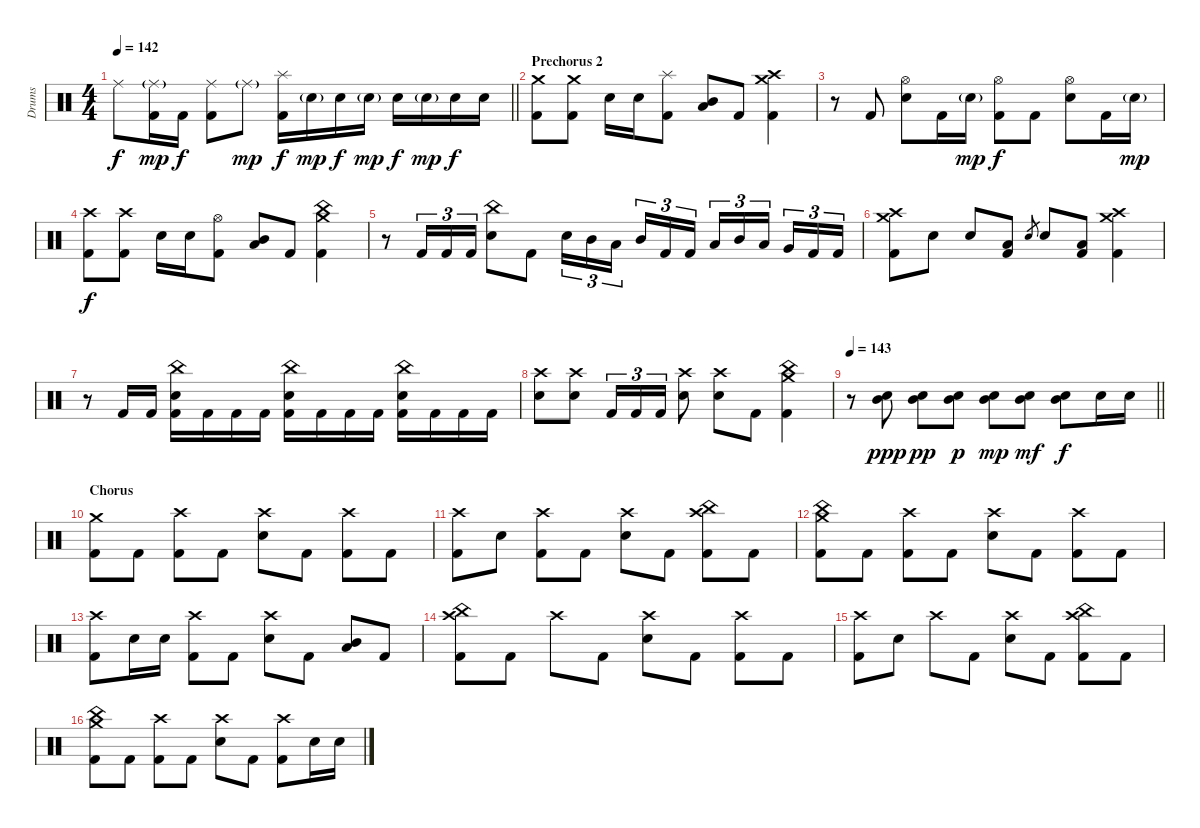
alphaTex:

\track ("Drums" "Drums") {instrument percussion}
\staff {score}
\articulation defaults
\ts (4 4)
\tempo 142
\clef neutral
\barLineRight lightlight
\ks c "Ride (middle)".8{dy f}
("Ride (middle)"{g} "Kick (hit) 2").16{dy mp} "Kick (hit) 2".16{dy f} ("Ride (middle)" "Kick (hit) 2").8 "Ride (middle)"{g}.8{dy mp} ("Splash (hit)" "Kick (hit) 2").16{dy f} "Electric Snare (hit)"{g}.16{dy mp} "Electric Snare (hit)".16{dy f} "Electric Snare (hit)"{g}.16{dy mp} "Electric Snare (hit)".16{dy f} "Electric Snare (hit)"{g}.16{dy mp} "Electric Snare (hit)".16{dy f} "Electric Snare (hit)".16 |
\section ("" "Prechorus 2")
("Crash medium (hit)" "Kick (hit) 2").8 ("Crash medium (hit)" "Kick (hit) 2").8 "Electric Snare (hit)".16 "Electric Snare (hit)".16 ("Splash (hit)" "Kick (hit) 2").8 ("Mid Tom (hit)" "Low Floor Tom (hit)").8{bu 60} "Kick (hit) 2".8{bu 60} ("Crash high (hit)" "Crash medium (hit)" "Kick (hit) 2").4 |
r.8 "Kick (hit) 2".8 ("Hi-Hat (open)" "Electric Snare (hit)").8 "Kick (hit) 2".16 "Electric Snare (hit)"{g}.16{dy mp} ("Hi-Hat (open)" "Kick (hit) 2").8{dy f} "Kick (hit) 2".8 ("Hi-Hat (open)" "Electric Snare (hit)").8 "Kick (hit) 2".16 "Electric Snare (hit)"{g}.16{dy mp} |
("Crash high (hit)" "Kick (hit) 2").8{dy f} ("Crash high (hit)" "Kick (hit) 2").8 "Electric Snare (hit)".16 "Electric Snare (hit)".16 ("Hi-Hat (open)" "Kick (hit) 2").8 ("Mid Tom (hit)" "Low Floor Tom (hit)").8{bu 60} "Kick (hit) 2".8{bu 60} ("Crash medium (hit)" "China (hit)" "Kick (hit) 2").4 |
r.8 "Kick (hit) 2".16{tu (3 2)} "Kick (hit) 2".16{tu (3 2)} "Kick (hit) 2".16{tu (3 2)} ("China (hit)" "Electric Snare (hit)").8 "Kick (hit) 2".8 "Electric Snare (hit)".16{tu (3 2)} "Mid Tom (hit)".16{tu (3 2)} "Low Floor Tom (hit)".16{tu (3 2)} "Mid Tom (hit)".16{tu (3 2)} "Kick (hit) 2".16{tu (3 2)} "Kick (hit) 2".16{tu (3 2)} "Low Floor Tom (hit)".16{tu (3 2)} "Mid Tom (hit)".16{tu (3 2)} "Low Floor Tom (hit)".16{tu (3 2)} "Very Low Tom (hit)".16{tu (3 2)} "Kick (hit) 2".16{tu (3 2)} "Kick (hit) 2".16{tu (3 2)} |
("Crash high (hit)" "Crash medium (hit)" "Kick (hit) 2").8 "Electric Snare (hit)".8 "Electric Snare (hit)".8 ("Low Floor Tom (hit)" "Kick (hit) 2").8 "Electric Snare (hit)".8{gr} "Electric Snare (hit)".8 ("Low Floor Tom (hit)" "Kick (hit) 2").8 ("Crash high (hit)" "Crash medium (hit)" "Kick (hit) 2").4 |
r.8 "Kick (hit) 2".16 "Kick (hit) 2".16 ("China (hit)" "Electric Snare (hit)" "Kick (hit) 2").16 "Kick (hit) 2".16 "Kick (hit) 2".16 "Kick (hit) 2".16 ("China (hit)" "Electric Snare (hit)" "Kick (hit) 2").16 "Kick (hit) 2".16 "Kick (hit) 2".16 "Kick (hit) 2".16 ("China (hit)" "Electric Snare (hit)" "Kick (hit) 2").16 "Kick (hit) 2".16 "Kick (hit) 2".16 "Kick (hit) 2".16 |
("Crash high (hit)" "Electric Snare (hit)").8 ("Crash high (hit)" "Electric Snare (hit)").8 "Kick (hit) 2".16{tu (3 2)} "Kick (hit) 2".16{tu (3 2)} "Kick (hit) 2".16{tu (3 2)} ("Crash high (hit)" "Electric Snare (hit)").8 ("Crash high (hit)" "Electric Snare (hit)").8 "Kick (hit) 2".8 ("Crash medium (hit)" "China (hit)" "Kick (hit) 2").4 |
\tempo 143
\barLineRight lightlight
r.8 ("Mid Tom (hit)" "Electric Snare (hit)").8{dy ppp} ("Mid Tom (hit)" "Electric Snare (hit)").8{dy pp} ("Mid Tom (hit)" "Electric Snare (hit)").8{dy p} ("Mid Tom (hit)" "Electric Snare (hit)").8{dy mp} ("Mid Tom (hit)" "Electric Snare (hit)").8{dy mf} ("Mid Tom (hit)" "Electric Snare (hit)").8{dy f} "Electric Snare (hit)".16 "Electric Snare (hit)".16 |
\section ("" "Chorus")
("Crash medium (hit)" "Kick (hit) 2").8 "Kick (hit) 2".8 ("Crash high (hit)" "Kick (hit) 2").8 "Kick (hit) 2".8 ("Crash high (hit)" "Electric Snare (hit)").8 "Kick (hit) 2".8 ("Crash high (hit)" "Kick (hit) 2").8 "Kick (hit) 2".8 |
("Crash high (hit)" "Kick (hit) 2").8 "Electric Snare (hit)".8 ("Crash high (hit)" "Kick (hit) 2").8 "Kick (hit) 2".8 ("Crash high (hit)" "Electric Snare (hit)").8 "Kick (hit) 2".8 ("Crash high (hit)" "China (hit)" "Kick (hit) 2").8 "Kick (hit) 2".8 |
("Crash medium (hit)" "China (hit)" "Kick (hit) 2").8 "Kick (hit) 2".8 ("Crash high (hit)" "Kick (hit) 2").8 "Kick (hit) 2".8 ("Crash high (hit)" "Electric Snare (hit)").8 "Kick (hit) 2".8 ("Crash high (hit)" "Kick (hit) 2").8 "Kick (hit) 2".8 |
("Crash high (hit)" "Kick (hit) 2").8 "Electric Snare (hit)".16 "Electric Snare (hit)".16 ("Crash high (hit)" "Kick (hit) 2").8 "Kick (hit) 2".8 ("Crash high (hit)" "Electric Snare (hit)").8 "Kick (hit) 2".8 ("Mid Tom (hit)" "Low Floor Tom (hit)").8{bu 60} "Kick (hit) 2".8 |
("Crash high (hit)" "China (hit)" "Kick (hit) 2").8 "Kick (hit) 2".8 "Crash high (hit)".8 "Kick (hit) 2".8 ("Crash high (hit)" "Electric Snare (hit)").8 "Kick (hit) 2".8 ("Crash high (hit)" "Kick (hit) 2").8 "Kick (hit) 2".8 |
("Crash high (hit)" "Kick (hit) 2").8 "Electric Snare (hit)".8 "Crash high (hit)".8 "Kick (hit) 2".8 ("Crash high (hit)" "Electric Snare (hit)").8 "Kick (hit) 2".8 ("Crash high (hit)" "China (hit)" "Kick (hit) 2").8 "Kick (hit) 2".8 |
("Crash medium (hit)" "China (hit)" "Kick (hit) 2").8 "Kick (hit) 2".8 ("Crash high (hit)" "Kick (hit) 2").8 "Kick (hit) 2".8 ("Crash high (hit)" "Electric Snare (hit)").8 "Kick (hit) 2".8 ("Crash high (hit)" "Kick (hit) 2").8 "Electric Snare (hit)".16 "Electric Snare (hit)".16
